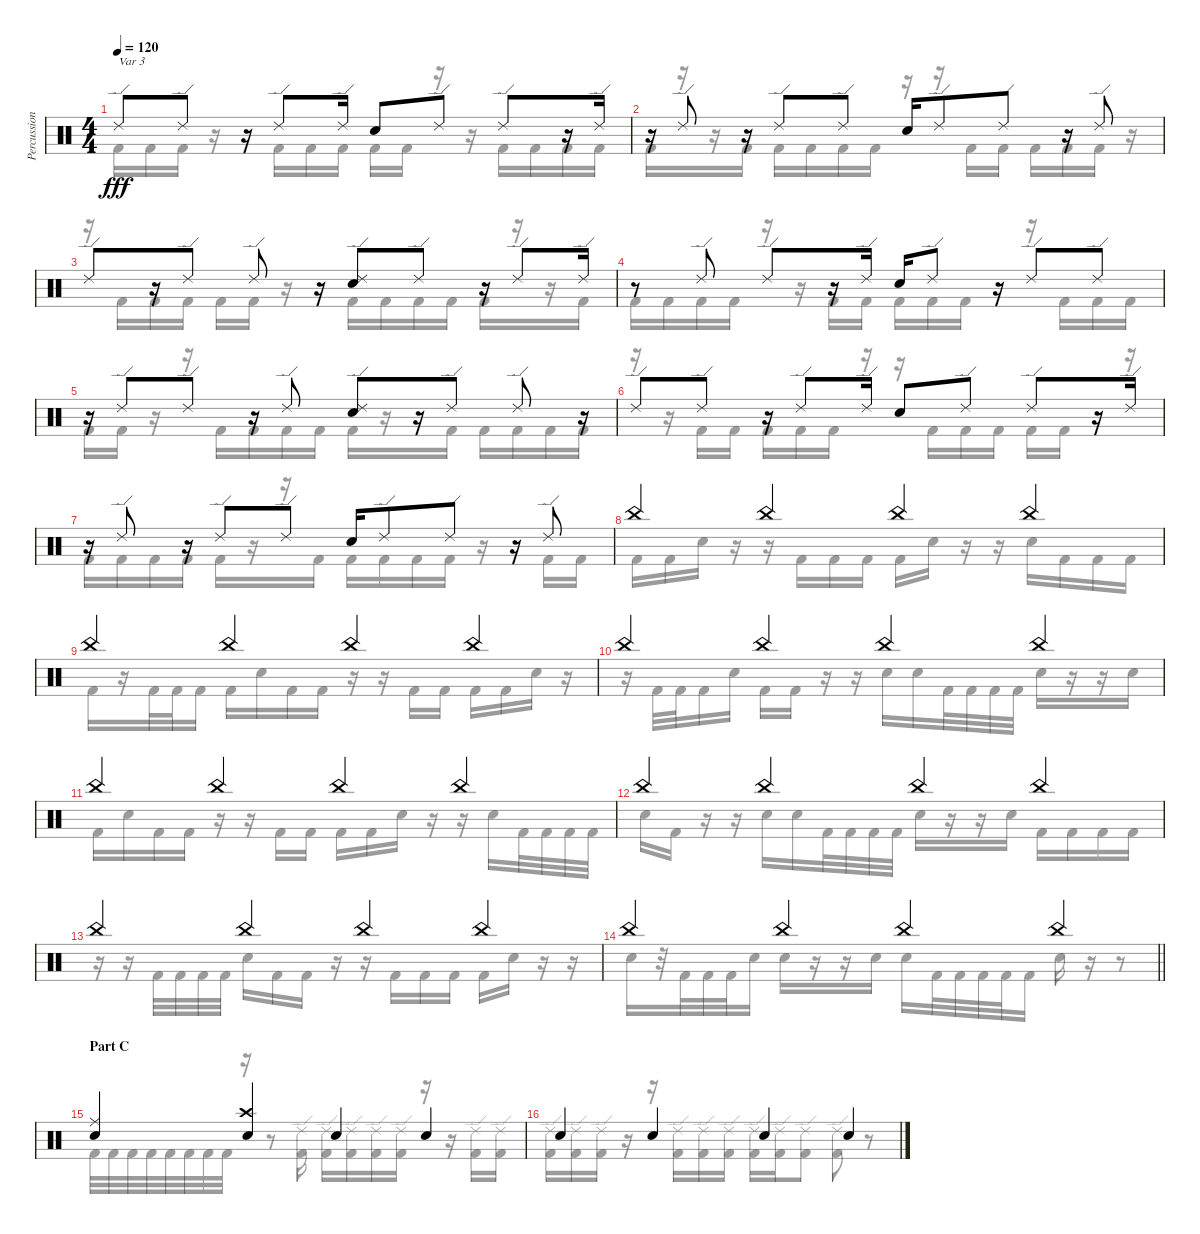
\track ("Percussion" "Percussion") {instrument percussion}
\staff {score}
\articulation defaults
\voice
\ts (4 4)
\tempo 120
\clef neutral
\ks c "Ride (edge) 2".8{txt "Var 3" dy fff} "Ride (edge) 2".8
r.16 "Ride (edge) 2".8 "Ride (edge) 2".16 "Snare (hit) 2".8 "Ride (edge) 2".8 "Ride (edge) 2".8 r.16 "Ride (edge) 2".16 |
r.16 "Ride (edge) 2".8 r.16 "Ride (edge) 2".8 "Ride (edge) 2".8 "Snare (hit) 2".16 "Ride (edge) 2".8 "Ride (edge) 2".8 r.16 "Ride (edge) 2".8 |
"Ride (edge) 2".8 r.16 "Ride (edge) 2".8 "Ride (edge) 2".8 r.16 ("Ride (edge) 2" "Snare (hit) 2").8 "Ride (edge) 2".8 r.16 "Ride (edge) 2".8 "Ride (edge) 2".16 |
r.8 "Ride (edge) 2".8 "Ride (edge) 2".8 r.16 "Ride (edge) 2".16 "Snare (hit) 2".16 "Ride (edge) 2".8 r.16 "Ride (edge) 2".8 "Ride (edge) 2".8 |
r.16 "Ride (edge) 2".8 "Ride (edge) 2".8 r.16 "Ride (edge) 2".8 ("Ride (edge) 2" "Snare (hit) 2").8 r.16 "Ride (edge) 2".8 "Ride (edge) 2".8 r.16 |
"Ride (edge) 2".8 "Ride (edge) 2".8 r.16 "Ride (edge) 2".8 "Ride (edge) 2".16 "Snare (hit) 2".8 "Ride (edge) 2".8 "Ride (edge) 2".8 r.16 "Ride (edge) 2".16 |
r.16 "Ride (edge) 2".8 r.16 "Ride (edge) 2".8 "Ride (edge) 2".8 "Snare (hit) 2".16 "Ride (edge) 2".8 "Ride (edge) 2".8 r.16 "Ride (edge) 2".8 |
"China (hit)".4 "China (hit)".4 "China (hit)".4 "China (hit)".4 |
"China (hit)".4 "China (hit)".4 "China (hit)".4 "China (hit)".4 |
"China (hit)".4 "China (hit)".4 "China (hit)".4 "China (hit)".4 |
"China (hit)".4 "China (hit)".4 "China (hit)".4 "China (hit)".4 |
"China (hit)".4 "China (hit)".4 "China (hit)".4 "China (hit)".4 |
"China (hit)".4 "China (hit)".4 "China (hit)".4 "China (hit)".4 |
\barLineRight lightlight "China (hit)".4 "China (hit)".4 "China (hit)".4 "China (hit)".4
|
\section ("" "Part C")
("Ride (middle)" "Snare (hit) 2").4 ("Crash high (hit)" "Snare (hit) 2").4 "Snare (hit) 2".4 "Snare (hit) 2".4 |
"Snare (hit) 2".4 "Snare (hit) 2".4 "Snare (hit) 2".4 "Snare (hit) 2".4
\voice
\clef neutral
\ottava regular
\simile none
\ks c "Kick (hit) 2".16{dy fff} "Kick (hit) 2".16 "Kick (hit) 2".16
r.16 r.16 "Kick (hit) 2".16 "Kick (hit) 2".16 "Kick (hit) 2".16 "Kick (hit) 2".16 "Kick (hit) 2".16 r.16 r.16 "Kick (hit) 2".16 "Kick (hit) 2".16 "Kick (hit) 2".16 "Kick (hit) 2".16 |
"Kick (hit) 2".16 r.16 r.16 "Kick (hit) 2".16 "Kick (hit) 2".16 "Kick (hit) 2".16 "Kick (hit) 2".16 "Kick (hit) 2".16 r.16 r.16 "Kick (hit) 2".16 "Kick (hit) 2".16 "Kick (hit) 2".16 "Kick (hit) 2".16 "Kick (hit) 2".16 r.16 |
r.16 "Kick (hit) 2".16 "Kick (hit) 2".16 "Kick (hit) 2".16 "Kick (hit) 2".16 "Kick (hit) 2".16 r.16 r.16 "Kick (hit) 2".16 "Kick (hit) 2".16 "Kick (hit) 2".16 "Kick (hit) 2".16 "Kick (hit) 2".16 r.16 r.16 "Kick (hit) 2".16 |
"Kick (hit) 2".16 "Kick (hit) 2".16 "Kick (hit) 2".16 "Kick (hit) 2".16 r.16 r.16 "Kick (hit) 2".16 "Kick (hit) 2".16 "Kick (hit) 2".16 "Kick (hit) 2".16 "Kick (hit) 2".16 r.16 r.16 "Kick (hit) 2".16 "Kick (hit) 2".16 "Kick (hit) 2".16 |
"Kick (hit) 2".16 "Kick (hit) 2".16 r.16 r.16 "Kick (hit) 2".16 "Kick (hit) 2".16 "Kick (hit) 2".16 "Kick (hit) 2".16 "Kick (hit) 2".16 r.16 r.16 "Kick (hit) 2".16 "Kick (hit) 2".16 "Kick (hit) 2".16 "Kick (hit) 2".16 "Kick (hit) 2".16 |
r.16 r.16 "Kick (hit) 2".16 "Kick (hit) 2".16 "Kick (hit) 2".16 "Kick (hit) 2".16 "Kick (hit) 2".16 r.16 r.16 "Kick (hit) 2".16 "Kick (hit) 2".16 "Kick (hit) 2".16 "Kick (hit) 2".16 "Kick (hit) 2".16 r.16 r.16 |
"Kick (hit) 2".16 "Kick (hit) 2".16 "Kick (hit) 2".16 "Kick (hit) 2".16 "Kick (hit) 2".16 r.16 r.16 "Kick (hit) 2".16 "Kick (hit) 2".16 "Kick (hit) 2".16 "Kick (hit) 2".16 "Kick (hit) 2".16 r.16 r.16 "Kick (hit) 2".16 "Kick (hit) 2".16 |
"Kick (hit) 2".16 "Kick (hit) 2".16 "Snare (hit) 2".16 r.16 r.16 "Kick (hit) 2".16 "Kick (hit) 2".16 "Kick (hit) 2".16 "Kick (hit) 2".16 "Snare (hit) 2".16 r.16 r.16 "Snare (hit) 2".16 "Kick (hit) 2".16 "Kick (hit) 2".16 "Kick (hit) 2".16 |
"Kick (hit) 2".16 r.16 "Kick (hit) 2".32 "Kick (hit) 2".32 "Kick (hit) 2".16 "Kick (hit) 2".16 "Snare (hit) 2".16 "Kick (hit) 2".16 "Kick (hit) 2".16 r.16 r.16 "Kick (hit) 2".16 "Kick (hit) 2".16 "Kick (hit) 2".16 "Kick (hit) 2".16 "Snare (hit) 2".16 r.16 |
r.16 "Kick (hit) 2".32 "Kick (hit) 2".32 "Kick (hit) 2".16 "Snare (hit) 2".16 "Kick (hit) 2".16 "Kick (hit) 2".16 r.16 r.16 "Snare (hit) 2".16 "Snare (hit) 2".16 "Kick (hit) 2".32 "Kick (hit) 2".32 "Kick (hit) 2".32 "Kick (hit) 2".32 "Snare (hit) 2".16 r.16 r.16 "Snare (hit) 2".16 |
"Kick (hit) 2".16 "Snare (hit) 2".16 "Kick (hit) 2".16 "Kick (hit) 2".16 r.16 r.16 "Kick (hit) 2".16 "Kick (hit) 2".16 "Kick (hit) 2".16 "Kick (hit) 2".16 "Snare (hit) 2".16 r.16 r.16 "Snare (hit) 2".16 "Kick (hit) 2".32 "Kick (hit) 2".32 "Kick (hit) 2".32 "Kick (hit) 2".32 |
"Snare (hit) 2".16 "Kick (hit) 2".16 r.16 r.16 "Snare (hit) 2".16 "Snare (hit) 2".16 "Kick (hit) 2".32 "Kick (hit) 2".32 "Kick (hit) 2".32 "Kick (hit) 2".32 "Snare (hit) 2".16 r.16 r.16 "Snare (hit) 2".16 "Kick (hit) 2".16 "Kick (hit) 2".16 "Kick (hit) 2".16 "Kick (hit) 2".16 |
r.16 r.16 "Kick (hit) 2".32 "Kick (hit) 2".32 "Kick (hit) 2".32 "Kick (hit) 2".32 "Snare (hit) 2".16 "Kick (hit) 2".16 "Kick (hit) 2".16 r.16 r.16 "Kick (hit) 2".16 "Kick (hit) 2".16 "Kick (hit) 2".16 "Kick (hit) 2".16 "Snare (hit) 2".16 r.16 r.16 |
\barLineRight lightlight "Snare (hit) 2".16
r.32 "Kick (hit) 2".32 "Kick (hit) 2".32 "Kick (hit) 2".32 "Snare (hit) 2".16 "Snare (hit) 2".16 r.16 r.16 "Snare (hit) 2".16 "Snare (hit) 2".16 "Kick (hit) 2".32 "Kick (hit) 2".32 "Kick (hit) 2".32 "Kick (hit) 2".32 "Kick (hit) 2".16 "Snare (hit) 2".16 r.16 r.8 |
"Kick (hit) 2".32 "Kick (hit) 2".32 "Kick (hit) 2".32 "Kick (hit) 2".32 "Kick (hit) 2".32 "Kick (hit) 2".32 "Kick (hit) 2".32 "Kick (hit) 2".32 r.16 r.8 ("Ride (edge) 2" "Kick (hit) 2").16 ("Ride (edge) 2" "Kick (hit) 2").16 ("Ride (edge) 2" "Kick (hit) 2").16 ("Ride (edge) 2" "Kick (hit) 2").16 ("Ride (edge) 2" "Kick (hit) 2").16 r.16 r.16 ("Ride (edge) 2" "Kick (hit) 2").16 ("Ride (edge) 2" "Kick (hit) 2").16 |
("Ride (edge) 2" "Kick (hit) 2").16 ("Ride (edge) 2" "Kick (hit) 2").16 ("Ride (edge) 2" "Kick (hit) 2").16 r.16 r.16 ("Ride (edge) 2" "Kick (hit) 2").16 ("Ride (edge) 2" "Kick (hit) 2").16 ("Ride (edge) 2" "Kick (hit) 2").16 ("Ride (edge) 2" "Kick (hit) 2").16 ("Ride (edge) 2" "Kick (hit) 2").16 ("Ride (edge) 2" "Kick (hit) 2").8 ("Ride (edge) 2" "Kick (hit) 2").8 r.8
